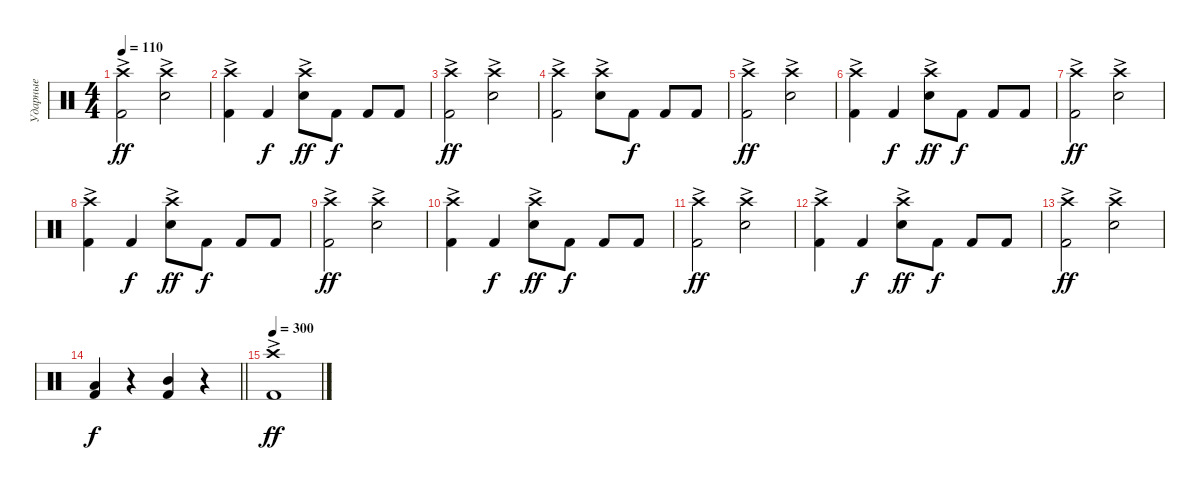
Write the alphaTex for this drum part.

\track ("Ударные" "Ударные") {instrument percussion}
\staff {score}
\articulation defaults
\ts (4 4)
\tempo 110
\clef neutral
\ks c
("Kick (hit) 2" "Crash high (hit)"{ac}).2{dy ff} ("Snare (hit) 2" "Crash high (hit)"{ac}).2 |
("Kick (hit) 2" "Crash high (hit)"{ac}).4 "Kick (hit) 2".4{dy f} ("Snare (hit) 2" "Crash high (hit)"{ac}).8{dy ff} "Kick (hit) 2".8{dy f} "Kick (hit) 2".8 "Kick (hit) 2".8 |
("Kick (hit) 2" "Crash high (hit)"{ac}).2{dy ff} ("Snare (hit) 2" "Crash high (hit)"{ac}).2 |
("Kick (hit) 2" "Crash high (hit)"{ac}).2 ("Snare (hit) 2" "Crash high (hit)"{ac}).8 "Kick (hit) 2".8{dy f} "Kick (hit) 2".8 "Kick (hit) 2".8 |
("Kick (hit) 2" "Crash high (hit)"{ac}).2{dy ff} ("Snare (hit) 2" "Crash high (hit)"{ac}).2 |
("Kick (hit) 2" "Crash high (hit)"{ac}).4 "Kick (hit) 2".4{dy f} ("Snare (hit) 2" "Crash high (hit)"{ac}).8{dy ff} "Kick (hit) 2".8{dy f} "Kick (hit) 2".8 "Kick (hit) 2".8 |
("Kick (hit) 2" "Crash high (hit)"{ac}).2{dy ff} ("Snare (hit) 2" "Crash high (hit)"{ac}).2 |
("Kick (hit) 2" "Crash high (hit)"{ac}).4 "Kick (hit) 2".4{dy f} ("Snare (hit) 2" "Crash high (hit)"{ac}).8{dy ff} "Kick (hit) 2".8{dy f} "Kick (hit) 2".8 "Kick (hit) 2".8 |
("Kick (hit) 2" "Crash high (hit)"{ac}).2{dy ff} ("Snare (hit) 2" "Crash high (hit)"{ac}).2 |
("Kick (hit) 2" "Crash high (hit)"{ac}).4 "Kick (hit) 2".4{dy f} ("Snare (hit) 2" "Crash high (hit)"{ac}).8{dy ff} "Kick (hit) 2".8{dy f} "Kick (hit) 2".8 "Kick (hit) 2".8 |
("Kick (hit) 2" "Crash high (hit)"{ac}).2{dy ff} ("Snare (hit) 2" "Crash high (hit)"{ac}).2 |
("Kick (hit) 2" "Crash high (hit)"{ac}).4 "Kick (hit) 2".4{dy f} ("Snare (hit) 2" "Crash high (hit)"{ac}).8{dy ff} "Kick (hit) 2".8{dy f} "Kick (hit) 2".8 "Kick (hit) 2".8 |
("Kick (hit) 2" "Crash high (hit)"{ac}).2{dy ff} ("Snare (hit) 2" "Crash high (hit)"{ac}).2 |
\barLineRight lightlight
("Kick (hit) 2" "Low Tom (hit)").4{dy f} r.4 ("Kick (hit) 2" "Mid Tom (hit)").4 r.4 |
\tempo 300
("Kick (hit) 2" "Crash high (hit)"{ac}).1{dy ff}
